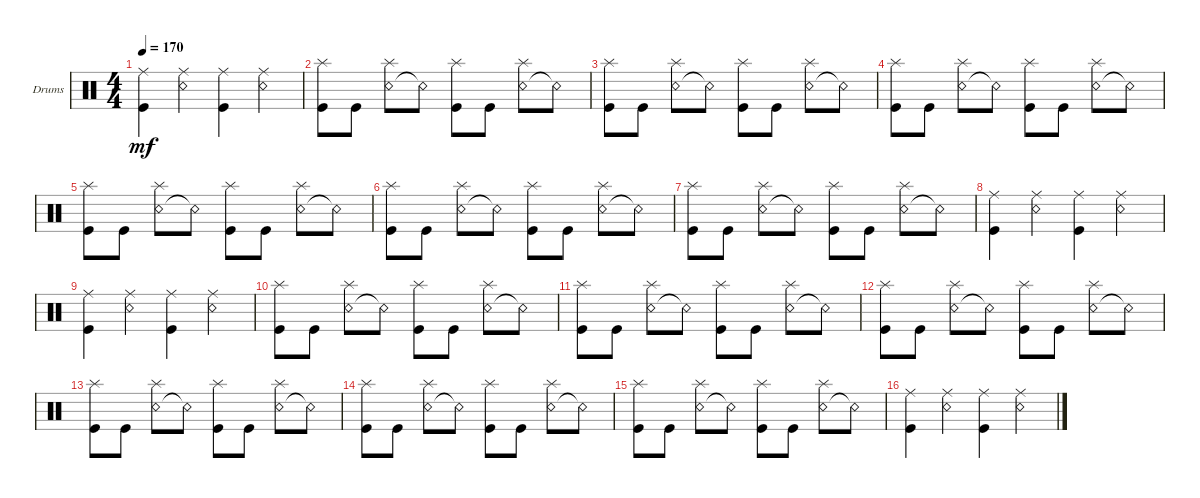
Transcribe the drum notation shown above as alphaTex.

\defaultSystemsLayout 4
\bracketExtendMode groupsimilarinstruments
\firstSystemTrackNameOrientation horizontal
\otherSystemsTrackNameOrientation horizontal
\track ("Drumkit" "Drums") {instrument percussion}
\staff {score}
\articulation defaults
\ts (4 4)
\tempo 170
\clef neutral
\scale
0.333333
\ks c
("Kick (hit)" "Ride (middle)").4{dy mf} ("Snare (rim shot)" "Ride (middle)").4 ("Kick (hit)" "Ride (middle)").4 ("Snare (rim shot)" "Ride (middle)").4 |
\scale
0.333333 ("Kick (hit)" "Splash (hit)").8 "Kick (hit)".8 ("Snare (rim shot)" "Splash (hit)").8 "Snare (rim shot)"{t}.8 ("Kick (hit)" "Splash (hit)").8 "Kick (hit)".8 ("Snare (rim shot)" "Splash (hit)").8 "Snare (rim shot)"{t}.8 |
("Kick (hit)" "Splash (hit)").8 "Kick (hit)".8 ("Snare (rim shot)" "Splash (hit)").8 "Snare (rim shot)"{t}.8 ("Kick (hit)" "Splash (hit)").8 "Kick (hit)".8 ("Snare (rim shot)" "Splash (hit)").8 "Snare (rim shot)"{t}.8 |
("Kick (hit)" "Splash (hit)").8 "Kick (hit)".8 ("Snare (rim shot)" "Splash (hit)").8 "Snare (rim shot)"{t}.8 ("Kick (hit)" "Splash (hit)").8 "Kick (hit)".8 ("Snare (rim shot)" "Splash (hit)").8 "Snare (rim shot)"{t}.8 |
("Kick (hit)" "Splash (hit)").8 "Kick (hit)".8 ("Snare (rim shot)" "Splash (hit)").8 "Snare (rim shot)"{t}.8 ("Kick (hit)" "Splash (hit)").8 "Kick (hit)".8 ("Snare (rim shot)" "Splash (hit)").8 "Snare (rim shot)"{t}.8 |
("Kick (hit)" "Splash (hit)").8 "Kick (hit)".8 ("Snare (rim shot)" "Splash (hit)").8 "Snare (rim shot)"{t}.8 ("Kick (hit)" "Splash (hit)").8 "Kick (hit)".8 ("Snare (rim shot)" "Splash (hit)").8 "Snare (rim shot)"{t}.8 |
("Kick (hit)" "Splash (hit)").8 "Kick (hit)".8 ("Snare (rim shot)" "Splash (hit)").8 "Snare (rim shot)"{t}.8 ("Kick (hit)" "Splash (hit)").8 "Kick (hit)".8 ("Snare (rim shot)" "Splash (hit)").8 "Snare (rim shot)"{t}.8 |
("Kick (hit)" "Ride (middle)").4 ("Snare (rim shot)" "Ride (middle)").4 ("Kick (hit)" "Ride (middle)").4 ("Snare (rim shot)" "Ride (middle)").4 |
("Kick (hit)" "Ride (middle)").4 ("Snare (rim shot)" "Ride (middle)").4 ("Kick (hit)" "Ride (middle)").4 ("Snare (rim shot)" "Ride (middle)").4 |
("Kick (hit)" "Splash (hit)").8 "Kick (hit)".8 ("Snare (rim shot)" "Splash (hit)").8 "Snare (rim shot)"{t}.8 ("Kick (hit)" "Splash (hit)").8 "Kick (hit)".8 ("Snare (rim shot)" "Splash (hit)").8 "Snare (rim shot)"{t}.8 |
("Kick (hit)" "Splash (hit)").8 "Kick (hit)".8 ("Snare (rim shot)" "Splash (hit)").8 "Snare (rim shot)"{t}.8 ("Kick (hit)" "Splash (hit)").8 "Kick (hit)".8 ("Snare (rim shot)" "Splash (hit)").8 "Snare (rim shot)"{t}.8 |
("Kick (hit)" "Splash (hit)").8 "Kick (hit)".8 ("Snare (rim shot)" "Splash (hit)").8 "Snare (rim shot)"{t}.8 ("Kick (hit)" "Splash (hit)").8 "Kick (hit)".8 ("Snare (rim shot)" "Splash (hit)").8 "Snare (rim shot)"{t}.8 |
("Kick (hit)" "Splash (hit)").8 "Kick (hit)".8 ("Snare (rim shot)" "Splash (hit)").8 "Snare (rim shot)"{t}.8 ("Kick (hit)" "Splash (hit)").8 "Kick (hit)".8 ("Snare (rim shot)" "Splash (hit)").8 "Snare (rim shot)"{t}.8 |
("Kick (hit)" "Splash (hit)").8 "Kick (hit)".8 ("Snare (rim shot)" "Splash (hit)").8 "Snare (rim shot)"{t}.8 ("Kick (hit)" "Splash (hit)").8 "Kick (hit)".8 ("Snare (rim shot)" "Splash (hit)").8 "Snare (rim shot)"{t}.8 |
("Kick (hit)" "Splash (hit)").8 "Kick (hit)".8 ("Snare (rim shot)" "Splash (hit)").8 "Snare (rim shot)"{t}.8 ("Kick (hit)" "Splash (hit)").8 "Kick (hit)".8 ("Snare (rim shot)" "Splash (hit)").8 "Snare (rim shot)"{t}.8 |
("Kick (hit)" "Ride (middle)").4 ("Snare (rim shot)" "Ride (middle)").4 ("Kick (hit)" "Ride (middle)").4 ("Snare (rim shot)" "Ride (middle)").4
